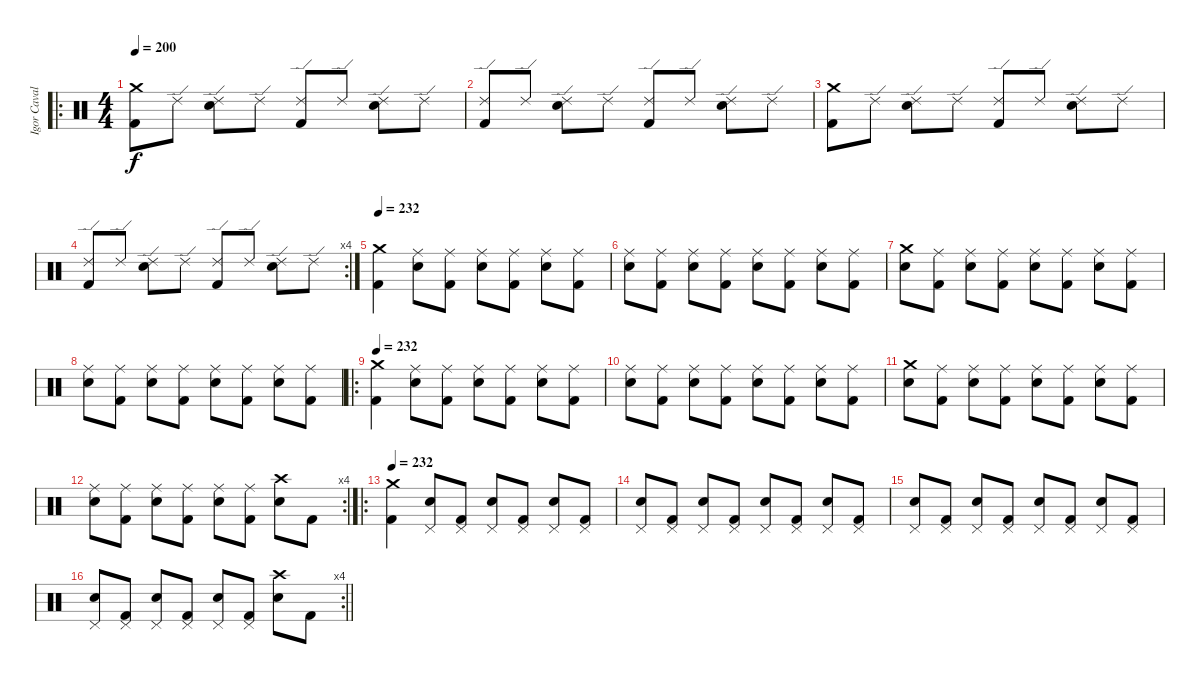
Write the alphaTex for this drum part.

\track ("Igor Cavalera" "Igor Caval") {instrument percussion}
\staff {score}
\articulation defaults
\ro
\ts (4 4)
\tempo 200
\clef neutral
\ks c
("Kick (hit) 2" "Crash medium (hit)").8{dy f} "Ride (edge) 2".8 ("Snare (hit) 2" "Ride (edge) 2").8 "Ride (edge) 2".8 ("Kick (hit) 2" "Ride (edge) 2").8 "Ride (edge) 2".8 ("Snare (hit) 2" "Ride (edge) 2").8 "Ride (edge) 2".8 |
("Kick (hit) 2" "Ride (edge) 2").8 "Ride (edge) 2".8 ("Snare (hit) 2" "Ride (edge) 2").8 "Ride (edge) 2".8 ("Kick (hit) 2" "Ride (edge) 2").8 "Ride (edge) 2".8 ("Snare (hit) 2" "Ride (edge) 2").8 "Ride (edge) 2".8 |
("Kick (hit) 2" "Crash medium (hit)").8 "Ride (edge) 2".8 ("Snare (hit) 2" "Ride (edge) 2").8 "Ride (edge) 2".8 ("Kick (hit) 2" "Ride (edge) 2").8 "Ride (edge) 2".8 ("Snare (hit) 2" "Ride (edge) 2").8 "Ride (edge) 2".8 |
\rc 4
("Kick (hit) 2" "Ride (edge) 2").8 "Ride (edge) 2".8 ("Snare (hit) 2" "Ride (edge) 2").8 "Ride (edge) 2".8 ("Kick (hit) 2" "Ride (edge) 2").8 "Ride (edge) 2".8 ("Snare (hit) 2" "Ride (edge) 2").8 "Ride (edge) 2".8 |
\tempo 232
("Kick (hit) 2" "Crash medium (hit)").4 ("Snare (hit) 2" "Ride (middle)").8 ("Kick (hit) 2" "Ride (middle)").8 ("Snare (hit) 2" "Ride (middle)").8 ("Kick (hit) 2" "Ride (middle)").8 ("Snare (hit) 2" "Ride (middle)").8 ("Kick (hit) 2" "Ride (middle)").8 |
("Snare (hit) 2" "Ride (middle)").8 ("Kick (hit) 2" "Ride (middle)").8 ("Snare (hit) 2" "Ride (middle)").8 ("Kick (hit) 2" "Ride (middle)").8 ("Snare (hit) 2" "Ride (middle)").8 ("Kick (hit) 2" "Ride (middle)").8 ("Snare (hit) 2" "Ride (middle)").8 ("Kick (hit) 2" "Ride (middle)").8 |
("Snare (hit) 2" "Crash medium (hit)").8 ("Kick (hit) 2" "Ride (middle)").8 ("Snare (hit) 2" "Ride (middle)").8 ("Kick (hit) 2" "Ride (middle)").8 ("Snare (hit) 2" "Ride (middle)").8 ("Kick (hit) 2" "Ride (middle)").8 ("Snare (hit) 2" "Ride (middle)").8 ("Kick (hit) 2" "Ride (middle)").8 |
("Snare (hit) 2" "Ride (middle)").8 ("Kick (hit) 2" "Ride (middle)").8 ("Snare (hit) 2" "Ride (middle)").8 ("Kick (hit) 2" "Ride (middle)").8 ("Snare (hit) 2" "Ride (middle)").8 ("Kick (hit) 2" "Ride (middle)").8 ("Snare (hit) 2" "Ride (middle)").8 ("Kick (hit) 2" "Ride (middle)").8 |
\ro
\tempo 232
("Kick (hit) 2" "Crash medium (hit)").4 ("Snare (hit) 2" "Ride (middle)").8 ("Kick (hit) 2" "Ride (middle)").8 ("Snare (hit) 2" "Ride (middle)").8 ("Kick (hit) 2" "Ride (middle)").8 ("Snare (hit) 2" "Ride (middle)").8 ("Kick (hit) 2" "Ride (middle)").8 |
("Snare (hit) 2" "Ride (middle)").8 ("Kick (hit) 2" "Ride (middle)").8 ("Snare (hit) 2" "Ride (middle)").8 ("Kick (hit) 2" "Ride (middle)").8 ("Snare (hit) 2" "Ride (middle)").8 ("Kick (hit) 2" "Ride (middle)").8 ("Snare (hit) 2" "Ride (middle)").8 ("Kick (hit) 2" "Ride (middle)").8 |
("Snare (hit) 2" "Crash medium (hit)").8 ("Kick (hit) 2" "Ride (middle)").8 ("Snare (hit) 2" "Ride (middle)").8 ("Kick (hit) 2" "Ride (middle)").8 ("Snare (hit) 2" "Ride (middle)").8 ("Kick (hit) 2" "Ride (middle)").8 ("Snare (hit) 2" "Ride (middle)").8 ("Kick (hit) 2" "Ride (middle)").8 |
\rc 4
("Snare (hit) 2" "Ride (middle)").8 ("Kick (hit) 2" "Ride (middle)").8 ("Snare (hit) 2" "Ride (middle)").8 ("Kick (hit) 2" "Ride (middle)").8 ("Snare (hit) 2" "Ride (middle)").8 ("Kick (hit) 2" "Ride (middle)").8 ("Snare (hit) 2" "Crash high (hit)").8 "Kick (hit) 2".8 |
\ro
\tempo 232
("Kick (hit) 2" "Crash medium (hit)").4 ("Snare (hit) 2" "Pedal Hi-Hat (hit)").8 ("Kick (hit) 2" "Pedal Hi-Hat (hit)").8 ("Snare (hit) 2" "Pedal Hi-Hat (hit)").8 ("Kick (hit) 2" "Pedal Hi-Hat (hit)").8 ("Snare (hit) 2" "Pedal Hi-Hat (hit)").8 ("Kick (hit) 2" "Pedal Hi-Hat (hit)").8 |
("Snare (hit) 2" "Pedal Hi-Hat (hit)").8 ("Kick (hit) 2" "Pedal Hi-Hat (hit)").8 ("Snare (hit) 2" "Pedal Hi-Hat (hit)").8 ("Kick (hit) 2" "Pedal Hi-Hat (hit)").8 ("Snare (hit) 2" "Pedal Hi-Hat (hit)").8 ("Kick (hit) 2" "Pedal Hi-Hat (hit)").8 ("Snare (hit) 2" "Pedal Hi-Hat (hit)").8 ("Kick (hit) 2" "Pedal Hi-Hat (hit)").8 |
("Snare (hit) 2" "Pedal Hi-Hat (hit)").8 ("Kick (hit) 2" "Pedal Hi-Hat (hit)").8 ("Snare (hit) 2" "Pedal Hi-Hat (hit)").8 ("Kick (hit) 2" "Pedal Hi-Hat (hit)").8 ("Snare (hit) 2" "Pedal Hi-Hat (hit)").8 ("Kick (hit) 2" "Pedal Hi-Hat (hit)").8 ("Snare (hit) 2" "Pedal Hi-Hat (hit)").8 ("Kick (hit) 2" "Pedal Hi-Hat (hit)").8 |
\rc 4
\barLineRight lightlight
("Snare (hit) 2" "Pedal Hi-Hat (hit)").8 ("Kick (hit) 2" "Pedal Hi-Hat (hit)").8 ("Snare (hit) 2" "Pedal Hi-Hat (hit)").8 ("Kick (hit) 2" "Pedal Hi-Hat (hit)").8 ("Snare (hit) 2" "Pedal Hi-Hat (hit)").8 ("Kick (hit) 2" "Pedal Hi-Hat (hit)").8 ("Snare (hit) 2" "Crash high (hit)").8 "Kick (hit) 2".8
